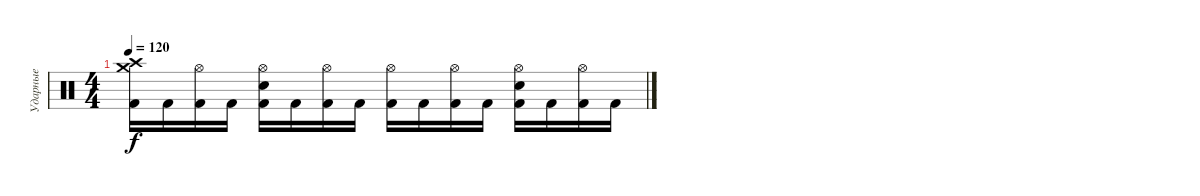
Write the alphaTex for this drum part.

\track ("Ударные" "Ударные") {instrument percussion}
\staff
\articulation defaults
\ts (4 4)
\tempo 120
\clef neutral
\ks c
("Crash high (hit)" "Crash medium (hit)" "Kick (hit) 2").16{dy f} "Kick (hit) 2".16 ("Hi-Hat (open)" "Kick (hit) 2").16 "Kick (hit) 2".16 ("Hi-Hat (open)" "Electric Snare (hit)" "Kick (hit) 2").16 "Kick (hit) 2".16 ("Hi-Hat (open)" "Kick (hit) 2").16 "Kick (hit) 2".16 ("Hi-Hat (open)" "Kick (hit) 2").16 "Kick (hit) 2".16 ("Hi-Hat (open)" "Kick (hit) 2").16 "Kick (hit) 2".16 ("Hi-Hat (open)" "Electric Snare (hit)" "Kick (hit) 2").16 "Kick (hit) 2".16 ("Hi-Hat (open)" "Kick (hit) 2").16 "Kick (hit) 2".16
